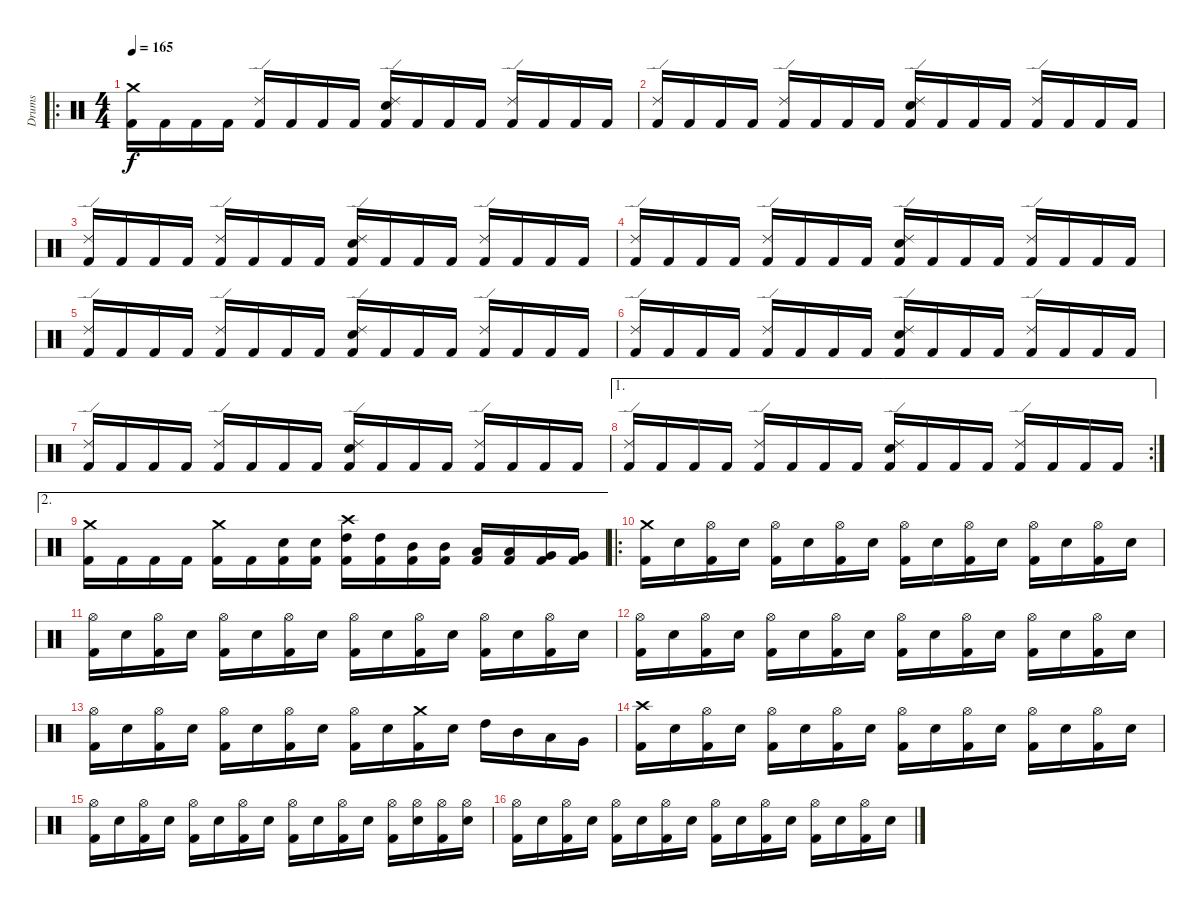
\track ("Drums" "Drums") {instrument percussion}
\staff {score}
\articulation defaults
\ro
\ts (4 4)
\tempo 165
\clef neutral
\ks c
("Kick (hit) 2" "Crash medium (hit)").16{dy f} "Kick (hit) 2".16 "Kick (hit) 2".16 "Kick (hit) 2".16 ("Kick (hit) 2" "Ride (edge) 2").16 "Kick (hit) 2".16 "Kick (hit) 2".16 "Kick (hit) 2".16 ("Kick (hit) 2" "Electric Snare (hit)" "Ride (edge) 2").16 "Kick (hit) 2".16 "Kick (hit) 2".16 "Kick (hit) 2".16 ("Kick (hit) 2" "Ride (edge) 2").16 "Kick (hit) 2".16 "Kick (hit) 2".16 "Kick (hit) 2".16 |
("Kick (hit) 2" "Ride (edge) 2").16 "Kick (hit) 2".16 "Kick (hit) 2".16 "Kick (hit) 2".16 ("Kick (hit) 2" "Ride (edge) 2").16 "Kick (hit) 2".16 "Kick (hit) 2".16 "Kick (hit) 2".16 ("Kick (hit) 2" "Electric Snare (hit)" "Ride (edge) 2").16 "Kick (hit) 2".16 "Kick (hit) 2".16 "Kick (hit) 2".16 ("Kick (hit) 2" "Ride (edge) 2").16 "Kick (hit) 2".16 "Kick (hit) 2".16 "Kick (hit) 2".16 |
("Kick (hit) 2" "Ride (edge) 2").16 "Kick (hit) 2".16 "Kick (hit) 2".16 "Kick (hit) 2".16 ("Kick (hit) 2" "Ride (edge) 2").16 "Kick (hit) 2".16 "Kick (hit) 2".16 "Kick (hit) 2".16 ("Kick (hit) 2" "Electric Snare (hit)" "Ride (edge) 2").16 "Kick (hit) 2".16 "Kick (hit) 2".16 "Kick (hit) 2".16 ("Kick (hit) 2" "Ride (edge) 2").16 "Kick (hit) 2".16 "Kick (hit) 2".16 "Kick (hit) 2".16 |
("Kick (hit) 2" "Ride (edge) 2").16 "Kick (hit) 2".16 "Kick (hit) 2".16 "Kick (hit) 2".16 ("Kick (hit) 2" "Ride (edge) 2").16 "Kick (hit) 2".16 "Kick (hit) 2".16 "Kick (hit) 2".16 ("Kick (hit) 2" "Electric Snare (hit)" "Ride (edge) 2").16 "Kick (hit) 2".16 "Kick (hit) 2".16 "Kick (hit) 2".16 ("Kick (hit) 2" "Ride (edge) 2").16 "Kick (hit) 2".16 "Kick (hit) 2".16 "Kick (hit) 2".16 |
("Kick (hit) 2" "Ride (edge) 2").16 "Kick (hit) 2".16 "Kick (hit) 2".16 "Kick (hit) 2".16 ("Kick (hit) 2" "Ride (edge) 2").16 "Kick (hit) 2".16 "Kick (hit) 2".16 "Kick (hit) 2".16 ("Kick (hit) 2" "Electric Snare (hit)" "Ride (edge) 2").16 "Kick (hit) 2".16 "Kick (hit) 2".16 "Kick (hit) 2".16 ("Kick (hit) 2" "Ride (edge) 2").16 "Kick (hit) 2".16 "Kick (hit) 2".16 "Kick (hit) 2".16 |
("Kick (hit) 2" "Ride (edge) 2").16 "Kick (hit) 2".16 "Kick (hit) 2".16 "Kick (hit) 2".16 ("Kick (hit) 2" "Ride (edge) 2").16 "Kick (hit) 2".16 "Kick (hit) 2".16 "Kick (hit) 2".16 ("Kick (hit) 2" "Electric Snare (hit)" "Ride (edge) 2").16 "Kick (hit) 2".16 "Kick (hit) 2".16 "Kick (hit) 2".16 ("Kick (hit) 2" "Ride (edge) 2").16 "Kick (hit) 2".16 "Kick (hit) 2".16 "Kick (hit) 2".16 |
("Kick (hit) 2" "Ride (edge) 2").16 "Kick (hit) 2".16 "Kick (hit) 2".16 "Kick (hit) 2".16 ("Kick (hit) 2" "Ride (edge) 2").16 "Kick (hit) 2".16 "Kick (hit) 2".16 "Kick (hit) 2".16 ("Kick (hit) 2" "Electric Snare (hit)" "Ride (edge) 2").16 "Kick (hit) 2".16 "Kick (hit) 2".16 "Kick (hit) 2".16 ("Kick (hit) 2" "Ride (edge) 2").16 "Kick (hit) 2".16 "Kick (hit) 2".16 "Kick (hit) 2".16 |
\ae 1
\rc 2
("Kick (hit) 2" "Ride (edge) 2").16 "Kick (hit) 2".16 "Kick (hit) 2".16 "Kick (hit) 2".16 ("Kick (hit) 2" "Ride (edge) 2").16 "Kick (hit) 2".16 "Kick (hit) 2".16 "Kick (hit) 2".16 ("Kick (hit) 2" "Electric Snare (hit)" "Ride (edge) 2").16 "Kick (hit) 2".16 "Kick (hit) 2".16 "Kick (hit) 2".16 ("Kick (hit) 2" "Ride (edge) 2").16 "Kick (hit) 2".16 "Kick (hit) 2".16 "Kick (hit) 2".16 |
\ae 2
("Kick (hit) 2" "Crash medium (hit)").16 "Kick (hit) 2".16 "Kick (hit) 2".16 "Kick (hit) 2".16 ("Kick (hit) 2" "Crash medium (hit)").16 "Kick (hit) 2".16 ("Kick (hit) 2" "Electric Snare (hit)").16 ("Kick (hit) 2" "Electric Snare (hit)").16 ("Kick (hit) 2" "High Tom (hit)" "Crash high (hit)").16 ("Kick (hit) 2" "High Tom (hit)").16 ("Kick (hit) 2" "Mid Tom (hit)").16 ("Kick (hit) 2" "Mid Tom (hit)").16 ("Kick (hit) 2" "Low Tom (hit)").16 ("Kick (hit) 2" "Low Tom (hit)").16 ("Kick (hit) 2" "Very Low Tom (hit)").16 ("Kick (hit) 2" "Very Low Tom (hit)").16 |
\ro
("Kick (hit) 2" "Crash medium (hit)").16 "Electric Snare (hit)".16 ("Kick (hit) 2" "Hi-Hat (open)").16 "Electric Snare (hit)".16 ("Kick (hit) 2" "Hi-Hat (open)").16 "Electric Snare (hit)".16 ("Kick (hit) 2" "Hi-Hat (open)").16 "Electric Snare (hit)".16 ("Kick (hit) 2" "Hi-Hat (open)").16 "Electric Snare (hit)".16 ("Kick (hit) 2" "Hi-Hat (open)").16 "Electric Snare (hit)".16 ("Kick (hit) 2" "Hi-Hat (open)").16 "Electric Snare (hit)".16 ("Kick (hit) 2" "Hi-Hat (open)").16 "Electric Snare (hit)".16 |
("Kick (hit) 2" "Hi-Hat (open)").16 "Electric Snare (hit)".16 ("Kick (hit) 2" "Hi-Hat (open)").16 "Electric Snare (hit)".16 ("Kick (hit) 2" "Hi-Hat (open)").16 "Electric Snare (hit)".16 ("Kick (hit) 2" "Hi-Hat (open)").16 "Electric Snare (hit)".16 ("Kick (hit) 2" "Hi-Hat (open)").16 "Electric Snare (hit)".16 ("Kick (hit) 2" "Hi-Hat (open)").16 "Electric Snare (hit)".16 ("Kick (hit) 2" "Hi-Hat (open)").16 "Electric Snare (hit)".16 ("Kick (hit) 2" "Hi-Hat (open)").16 "Electric Snare (hit)".16 |
("Kick (hit) 2" "Hi-Hat (open)").16 "Electric Snare (hit)".16 ("Kick (hit) 2" "Hi-Hat (open)").16 "Electric Snare (hit)".16 ("Kick (hit) 2" "Hi-Hat (open)").16 "Electric Snare (hit)".16 ("Kick (hit) 2" "Hi-Hat (open)").16 "Electric Snare (hit)".16 ("Kick (hit) 2" "Hi-Hat (open)").16 "Electric Snare (hit)".16 ("Kick (hit) 2" "Hi-Hat (open)").16 "Electric Snare (hit)".16 ("Kick (hit) 2" "Hi-Hat (open)").16 "Electric Snare (hit)".16 ("Kick (hit) 2" "Hi-Hat (open)").16 "Electric Snare (hit)".16 |
("Kick (hit) 2" "Hi-Hat (open)").16 "Electric Snare (hit)".16 ("Kick (hit) 2" "Hi-Hat (open)").16 "Electric Snare (hit)".16 ("Kick (hit) 2" "Hi-Hat (open)").16 "Electric Snare (hit)".16 ("Kick (hit) 2" "Hi-Hat (open)").16 "Electric Snare (hit)".16 ("Kick (hit) 2" "Hi-Hat (open)").16 "Electric Snare (hit)".16 ("Kick (hit) 2" "Crash medium (hit)").16 "Electric Snare (hit)".16 "High Tom (hit)".16 "Mid Tom (hit)".16 "Low Tom (hit)".16 "Very Low Tom (hit)".16 |
("Kick (hit) 2" "Crash high (hit)").16 "Electric Snare (hit)".16 ("Kick (hit) 2" "Hi-Hat (open)").16 "Electric Snare (hit)".16 ("Kick (hit) 2" "Hi-Hat (open)").16 "Electric Snare (hit)".16 ("Kick (hit) 2" "Hi-Hat (open)").16 "Electric Snare (hit)".16 ("Kick (hit) 2" "Hi-Hat (open)").16 "Electric Snare (hit)".16 ("Kick (hit) 2" "Hi-Hat (open)").16 "Electric Snare (hit)".16 ("Kick (hit) 2" "Hi-Hat (open)").16 "Electric Snare (hit)".16 ("Kick (hit) 2" "Hi-Hat (open)").16 "Electric Snare (hit)".16 |
("Kick (hit) 2" "Hi-Hat (open)").16 "Electric Snare (hit)".16 ("Kick (hit) 2" "Hi-Hat (open)").16 "Electric Snare (hit)".16 ("Kick (hit) 2" "Hi-Hat (open)").16 "Electric Snare (hit)".16 ("Kick (hit) 2" "Hi-Hat (open)").16 "Electric Snare (hit)".16 ("Kick (hit) 2" "Hi-Hat (open)").16 "Electric Snare (hit)".16 ("Kick (hit) 2" "Hi-Hat (open)").16 "Electric Snare (hit)".16 ("Kick (hit) 2" "Hi-Hat (open)").16 ("Electric Snare (hit)" "Hi-Hat (open)").16 ("Kick (hit) 2" "Hi-Hat (open)").16 ("Electric Snare (hit)" "Hi-Hat (open)").16 |
("Kick (hit) 2" "Hi-Hat (open)").16 "Electric Snare (hit)".16 ("Kick (hit) 2" "Hi-Hat (open)").16 "Electric Snare (hit)".16 ("Kick (hit) 2" "Hi-Hat (open)").16 "Electric Snare (hit)".16 ("Kick (hit) 2" "Hi-Hat (open)").16 "Electric Snare (hit)".16 ("Kick (hit) 2" "Hi-Hat (open)").16 "Electric Snare (hit)".16 ("Kick (hit) 2" "Hi-Hat (open)").16 "Electric Snare (hit)".16 ("Kick (hit) 2" "Hi-Hat (open)").16 "Electric Snare (hit)".16 ("Kick (hit) 2" "Hi-Hat (open)").16 "Electric Snare (hit)".16
